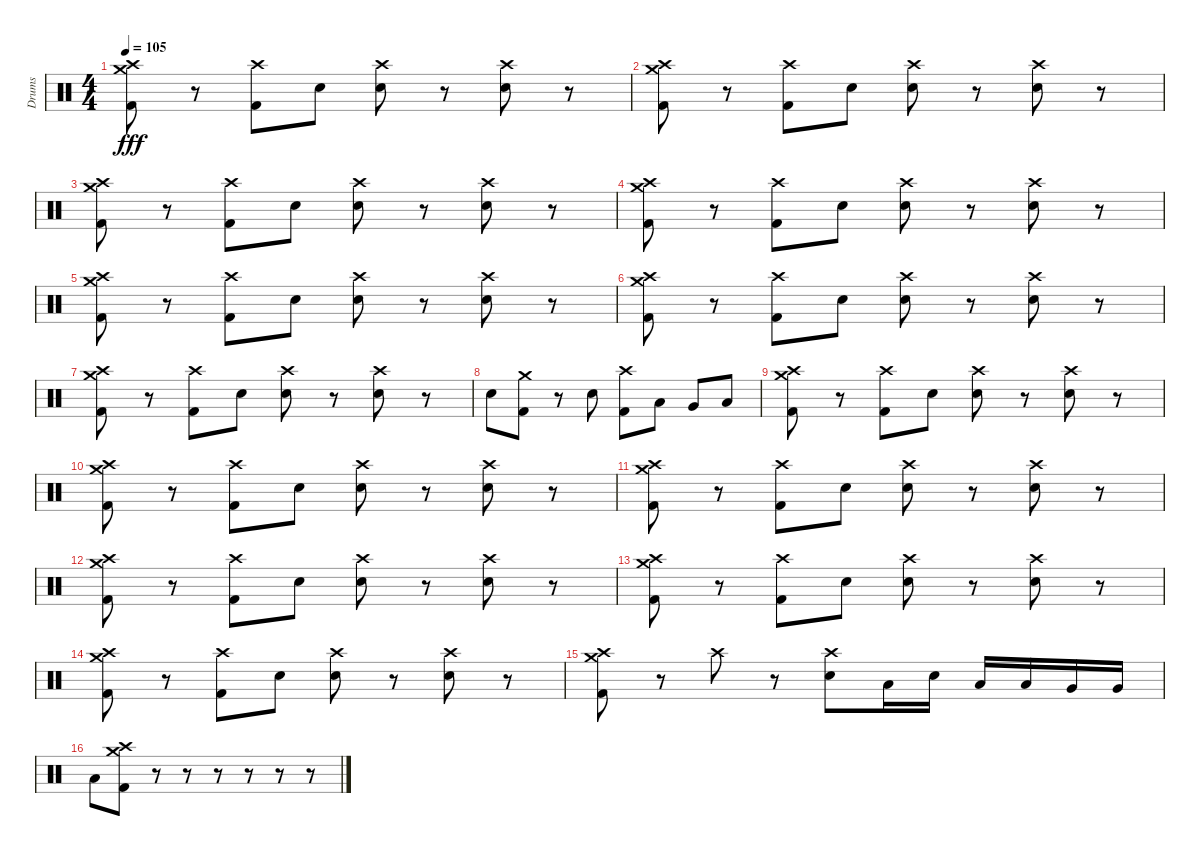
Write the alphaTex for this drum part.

\track ("Drums" "Drums") {instrument percussion}
\staff {score}
\articulation defaults
\ts (4 4)
\section ("" "")
\tempo 105
\clef neutral
\ks c
("Crash medium (hit)" "Crash high (hit)" "Kick (hit) 2").8{dy fff} r.8 ("Crash high (hit)" "Kick (hit) 2").8 "Electric Snare (hit)".8 ("Crash high (hit)" "Electric Snare (hit)").8 r.8 ("Crash high (hit)" "Electric Snare (hit)").8 r.8 |
("Crash medium (hit)" "Crash high (hit)" "Kick (hit) 2").8 r.8 ("Crash high (hit)" "Kick (hit) 2").8 "Electric Snare (hit)".8 ("Crash high (hit)" "Electric Snare (hit)").8 r.8 ("Crash high (hit)" "Electric Snare (hit)").8 r.8 |
("Crash medium (hit)" "Crash high (hit)" "Kick (hit) 2").8 r.8 ("Crash high (hit)" "Kick (hit) 2").8 "Electric Snare (hit)".8 ("Crash high (hit)" "Electric Snare (hit)").8 r.8 ("Crash high (hit)" "Electric Snare (hit)").8 r.8 |
("Crash medium (hit)" "Crash high (hit)" "Kick (hit) 2").8 r.8 ("Crash high (hit)" "Kick (hit) 2").8 "Electric Snare (hit)".8 ("Crash high (hit)" "Electric Snare (hit)").8 r.8 ("Crash high (hit)" "Electric Snare (hit)").8 r.8 |
("Crash medium (hit)" "Crash high (hit)" "Kick (hit) 2").8 r.8 ("Crash high (hit)" "Kick (hit) 2").8 "Electric Snare (hit)".8 ("Crash high (hit)" "Electric Snare (hit)").8 r.8 ("Crash high (hit)" "Electric Snare (hit)").8 r.8 |
("Crash medium (hit)" "Crash high (hit)" "Kick (hit) 2").8 r.8 ("Crash high (hit)" "Kick (hit) 2").8 "Electric Snare (hit)".8 ("Crash high (hit)" "Electric Snare (hit)").8 r.8 ("Crash high (hit)" "Electric Snare (hit)").8 r.8 |
("Crash medium (hit)" "Crash high (hit)" "Kick (hit) 2").8 r.8 ("Crash high (hit)" "Kick (hit) 2").8 "Electric Snare (hit)".8 ("Crash high (hit)" "Electric Snare (hit)").8 r.8 ("Crash high (hit)" "Electric Snare (hit)").8 r.8 |
"Electric Snare (hit)".8 ("Crash medium (hit)" "Kick (hit) 2").8 r.8 "Electric Snare (hit)".8 ("Crash high (hit)" "Kick (hit) 2").8 "Low Tom (hit)".8 "Very Low Tom (hit)".8 "Low Floor Tom (hit)".8 |
("Crash medium (hit)" "Crash high (hit)" "Kick (hit) 2").8 r.8 ("Crash high (hit)" "Kick (hit) 2").8 "Electric Snare (hit)".8 ("Crash high (hit)" "Electric Snare (hit)").8 r.8 ("Crash high (hit)" "Electric Snare (hit)").8 r.8 |
("Crash medium (hit)" "Crash high (hit)" "Kick (hit) 2").8 r.8 ("Crash high (hit)" "Kick (hit) 2").8 "Electric Snare (hit)".8 ("Crash high (hit)" "Electric Snare (hit)").8 r.8 ("Crash high (hit)" "Electric Snare (hit)").8 r.8 |
("Crash medium (hit)" "Crash high (hit)" "Kick (hit) 2").8 r.8 ("Crash high (hit)" "Kick (hit) 2").8 "Electric Snare (hit)".8 ("Crash high (hit)" "Electric Snare (hit)").8 r.8 ("Crash high (hit)" "Electric Snare (hit)").8 r.8 |
("Crash medium (hit)" "Crash high (hit)" "Kick (hit) 2").8 r.8 ("Crash high (hit)" "Kick (hit) 2").8 "Electric Snare (hit)".8 ("Crash high (hit)" "Electric Snare (hit)").8 r.8 ("Crash high (hit)" "Electric Snare (hit)").8 r.8 |
("Crash medium (hit)" "Crash high (hit)" "Kick (hit) 2").8 r.8 ("Crash high (hit)" "Kick (hit) 2").8 "Electric Snare (hit)".8 ("Crash high (hit)" "Electric Snare (hit)").8 r.8 ("Crash high (hit)" "Electric Snare (hit)").8 r.8 |
("Crash medium (hit)" "Crash high (hit)" "Kick (hit) 2").8 r.8 ("Crash high (hit)" "Kick (hit) 2").8 "Electric Snare (hit)".8 ("Crash high (hit)" "Electric Snare (hit)").8 r.8 ("Crash high (hit)" "Electric Snare (hit)").8 r.8 |
("Crash medium (hit)" "Crash high (hit)" "Kick (hit) 2").8 r.8 "Crash high (hit)".8 r.8 ("Crash high (hit)" "Electric Snare (hit)").8 "Low Tom (hit)".16 "Electric Snare (hit)".16 "Low Tom (hit)".16 "Low Tom (hit)".16 "Very Low Tom (hit)".16 "Very Low Tom (hit)".16 |
"Low Floor Tom (hit)".8 ("Crash high (hit)" "Crash medium (hit)" "Kick (hit) 2").8 r.8 r.8 r.8 r.8 r.8 r.8
